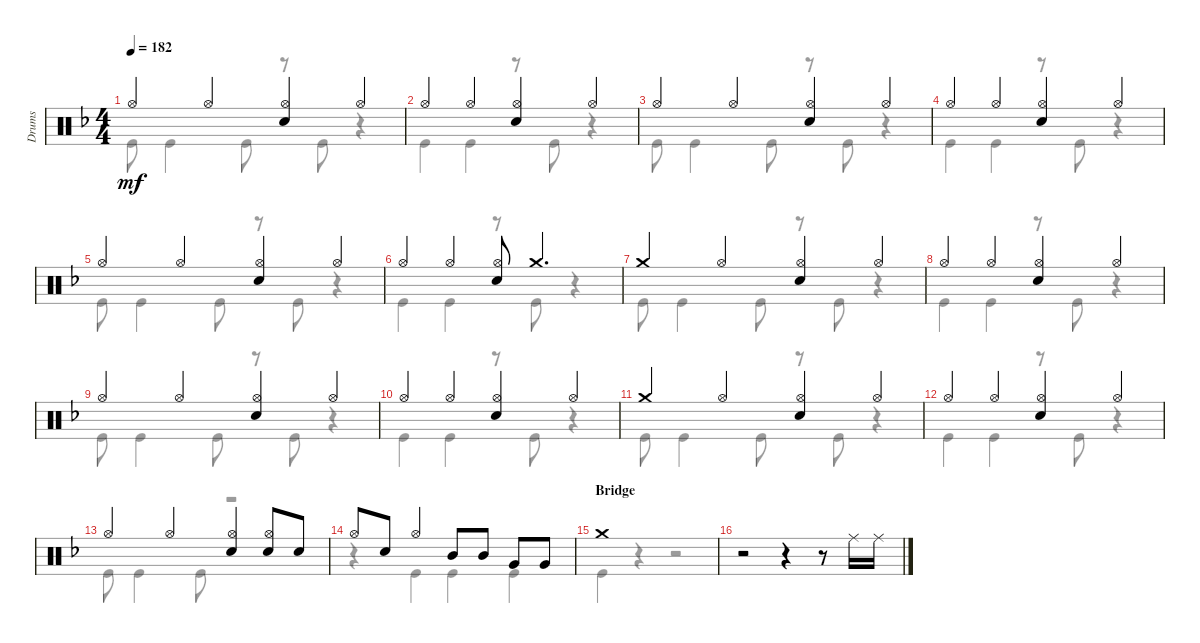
\track ("Drums" "Drums") {instrument percussion}
\staff {score}
\articulation defaults
\voice
\ts (4 4)
\tempo 182
\clef neutral
\ks f "Hi-Hat (open)".4{dy mf} "Hi-Hat (open)".4
("Hi-Hat (open)" "Snare (hit) 2").4 "Hi-Hat (open)".4 |
"Hi-Hat (open)".4 "Hi-Hat (open)".4 ("Hi-Hat (open)" "Snare (hit) 2").4 "Hi-Hat (open)".4 |
"Hi-Hat (open)".4 "Hi-Hat (open)".4 ("Hi-Hat (open)" "Snare (hit) 2").4 "Hi-Hat (open)".4 |
"Hi-Hat (open)".4 "Hi-Hat (open)".4 ("Hi-Hat (open)" "Snare (hit) 2").4 "Hi-Hat (open)".4 |
"Hi-Hat (open)".4 "Hi-Hat (open)".4 ("Hi-Hat (open)" "Snare (hit) 2").4 "Hi-Hat (open)".4 |
"Hi-Hat (open)".4 "Hi-Hat (open)".4 ("Hi-Hat (open)" "Snare (hit) 2").8 "Crash medium (hit)".4{d} |
"Crash medium (hit)".4 "Hi-Hat (open)".4 ("Hi-Hat (open)" "Snare (hit) 2").4 "Hi-Hat (open)".4 |
"Hi-Hat (open)".4 "Hi-Hat (open)".4 ("Hi-Hat (open)" "Snare (hit) 2").4 "Hi-Hat (open)".4 |
"Hi-Hat (open)".4 "Hi-Hat (open)".4 ("Hi-Hat (open)" "Snare (hit) 2").4 "Hi-Hat (open)".4 |
"Hi-Hat (open)".4 "Hi-Hat (open)".4 ("Hi-Hat (open)" "Snare (hit) 2").4 "Hi-Hat (open)".4 |
"Crash medium (hit)".4 "Hi-Hat (open)".4 ("Hi-Hat (open)" "Snare (hit) 2").4 "Hi-Hat (open)".4 |
"Hi-Hat (open)".4 "Hi-Hat (open)".4 ("Hi-Hat (open)" "Snare (hit) 2").4 "Hi-Hat (open)".4 |
"Hi-Hat (open)".4 "Hi-Hat (open)".4 ("Hi-Hat (open)" "Snare (hit) 2").4 ("Snare (hit) 2" "Hi-Hat (open)").8 "Snare (hit) 2".8 |
"Hi-Hat (open)".8 "Snare (hit) 2".8 "Hi-Hat (open)".4 "Mid Tom (hit)".8 "Mid Tom (hit)".8 "Very Low Tom (hit)".8 "Very Low Tom (hit)".8 |
\section ("" "Bridge")
"Crash medium (hit)".1 |
r.2 r.4 r.8 "Ride (middle)".16 "Ride (middle)".16
\voice
\clef neutral
\ottava regular
\simile none
\ks f "Kick (hit)".8{dy mf} "Kick (hit)".4 "Kick (hit)".8
r.8 "Kick (hit)".8 r.4 |
"Kick (hit)".4 "Kick (hit)".4 r.8 "Kick (hit)".8 r.4 |
"Kick (hit)".8 "Kick (hit)".4 "Kick (hit)".8 r.8 "Kick (hit)".8 r.4 |
"Kick (hit)".4 "Kick (hit)".4 r.8 "Kick (hit)".8 r.4 |
"Kick (hit)".8 "Kick (hit)".4 "Kick (hit)".8 r.8 "Kick (hit)".8 r.4 |
"Kick (hit)".4 "Kick (hit)".4 r.8 "Kick (hit)".8 r.4 |
"Kick (hit)".8 "Kick (hit)".4 "Kick (hit)".8 r.8 "Kick (hit)".8 r.4 |
"Kick (hit)".4 "Kick (hit)".4 r.8 "Kick (hit)".8 r.4 |
"Kick (hit)".8 "Kick (hit)".4 "Kick (hit)".8 r.8 "Kick (hit)".8 r.4 |
"Kick (hit)".4 "Kick (hit)".4 r.8 "Kick (hit)".8 r.4 |
"Kick (hit)".8 "Kick (hit)".4 "Kick (hit)".8 r.8 "Kick (hit)".8 r.4 |
"Kick (hit)".4 "Kick (hit)".4 r.8 "Kick (hit)".8 r.4 |
"Kick (hit)".8 "Kick (hit)".4 "Kick (hit)".8 r.2 |
r.4 "Kick (hit)".4 "Kick (hit)".4 "Kick (hit)".4 |
"Kick (hit)".4 r.4 r.2 |
